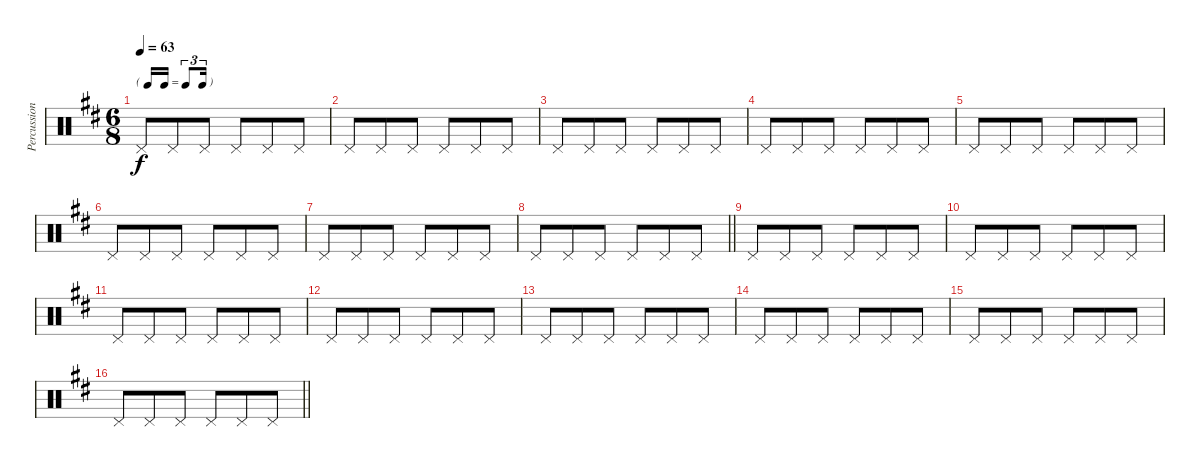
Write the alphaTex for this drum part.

\track ("Percussion" "Percussion") {instrument percussion}
\staff {score}
\articulation defaults
\ts (6 8)
\tf triplet16th
\tempo 63
\clef neutral
\ks bminor "Pedal Hi-Hat (hit)".8{dy f} "Pedal Hi-Hat (hit)".8 "Pedal Hi-Hat (hit)".8 "Pedal Hi-Hat (hit)".8 "Pedal Hi-Hat (hit)".8 "Pedal Hi-Hat (hit)".8
|
"Pedal Hi-Hat (hit)".8 "Pedal Hi-Hat (hit)".8 "Pedal Hi-Hat (hit)".8 "Pedal Hi-Hat (hit)".8 "Pedal Hi-Hat (hit)".8 "Pedal Hi-Hat (hit)".8 |
"Pedal Hi-Hat (hit)".8 "Pedal Hi-Hat (hit)".8 "Pedal Hi-Hat (hit)".8 "Pedal Hi-Hat (hit)".8 "Pedal Hi-Hat (hit)".8 "Pedal Hi-Hat (hit)".8 |
"Pedal Hi-Hat (hit)".8 "Pedal Hi-Hat (hit)".8 "Pedal Hi-Hat (hit)".8 "Pedal Hi-Hat (hit)".8 "Pedal Hi-Hat (hit)".8 "Pedal Hi-Hat (hit)".8 |
"Pedal Hi-Hat (hit)".8 "Pedal Hi-Hat (hit)".8 "Pedal Hi-Hat (hit)".8 "Pedal Hi-Hat (hit)".8 "Pedal Hi-Hat (hit)".8 "Pedal Hi-Hat (hit)".8 |
"Pedal Hi-Hat (hit)".8 "Pedal Hi-Hat (hit)".8 "Pedal Hi-Hat (hit)".8 "Pedal Hi-Hat (hit)".8 "Pedal Hi-Hat (hit)".8 "Pedal Hi-Hat (hit)".8 |
"Pedal Hi-Hat (hit)".8 "Pedal Hi-Hat (hit)".8 "Pedal Hi-Hat (hit)".8 "Pedal Hi-Hat (hit)".8 "Pedal Hi-Hat (hit)".8 "Pedal Hi-Hat (hit)".8 |
\barLineRight lightlight "Pedal Hi-Hat (hit)".8 "Pedal Hi-Hat (hit)".8 "Pedal Hi-Hat (hit)".8 "Pedal Hi-Hat (hit)".8 "Pedal Hi-Hat (hit)".8 "Pedal Hi-Hat (hit)".8
|
"Pedal Hi-Hat (hit)".8 "Pedal Hi-Hat (hit)".8 "Pedal Hi-Hat (hit)".8 "Pedal Hi-Hat (hit)".8 "Pedal Hi-Hat (hit)".8 "Pedal Hi-Hat (hit)".8 |
"Pedal Hi-Hat (hit)".8 "Pedal Hi-Hat (hit)".8 "Pedal Hi-Hat (hit)".8 "Pedal Hi-Hat (hit)".8 "Pedal Hi-Hat (hit)".8 "Pedal Hi-Hat (hit)".8 |
"Pedal Hi-Hat (hit)".8 "Pedal Hi-Hat (hit)".8 "Pedal Hi-Hat (hit)".8 "Pedal Hi-Hat (hit)".8 "Pedal Hi-Hat (hit)".8 "Pedal Hi-Hat (hit)".8 |
"Pedal Hi-Hat (hit)".8 "Pedal Hi-Hat (hit)".8 "Pedal Hi-Hat (hit)".8 "Pedal Hi-Hat (hit)".8 "Pedal Hi-Hat (hit)".8 "Pedal Hi-Hat (hit)".8 |
"Pedal Hi-Hat (hit)".8 "Pedal Hi-Hat (hit)".8 "Pedal Hi-Hat (hit)".8 "Pedal Hi-Hat (hit)".8 "Pedal Hi-Hat (hit)".8 "Pedal Hi-Hat (hit)".8 |
"Pedal Hi-Hat (hit)".8 "Pedal Hi-Hat (hit)".8 "Pedal Hi-Hat (hit)".8 "Pedal Hi-Hat (hit)".8 "Pedal Hi-Hat (hit)".8 "Pedal Hi-Hat (hit)".8 |
"Pedal Hi-Hat (hit)".8 "Pedal Hi-Hat (hit)".8 "Pedal Hi-Hat (hit)".8 "Pedal Hi-Hat (hit)".8 "Pedal Hi-Hat (hit)".8 "Pedal Hi-Hat (hit)".8 |
\barLineRight lightlight "Pedal Hi-Hat (hit)".8 "Pedal Hi-Hat (hit)".8 "Pedal Hi-Hat (hit)".8 "Pedal Hi-Hat (hit)".8 "Pedal Hi-Hat (hit)".8 "Pedal Hi-Hat (hit)".8
